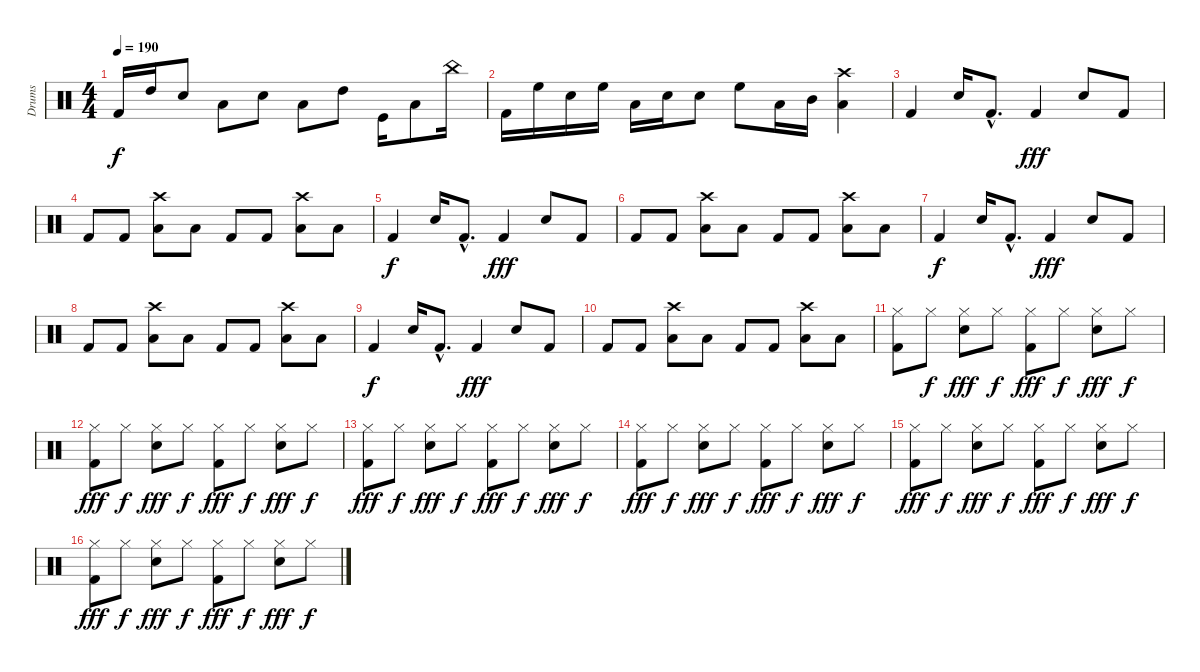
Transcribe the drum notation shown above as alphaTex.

\track ("Drums" "Drums") {instrument percussion}
\staff {score}
\articulation defaults
\ts (4 4)
\tempo 190
\clef neutral
\ks c "Kick (hit) 2".16{dy f} "High Tom (hit)".16 "Snare (hit) 2".8 "Low Tom (hit)".8 "Hand Clap (hit)".8 "Low Floor Tom (hit)".8 "High Tom (hit)".8 "Kick (hit)".16 "Low Tom (hit)".8 "China (hit)".16
|
"Kick (hit) 2".16 "High Floor Tom (hit)".16 "Snare (hit) 2".16 "High Floor Tom (hit)".16 "Low Floor Tom (hit)".16 "Snare (hit) 2".16 "Snare (hit) 2".8 "High Floor Tom (hit)".8 "Low Tom (hit)".16 "Mid Tom (hit)".16 ("Low Tom (hit)" "Crash high (hit)").4 |
"Kick (hit) 2".4 "Snare (hit) 2".16 "Kick (hit) 2"{hac}.8{d} "Kick (hit) 2".4{dy fff} "Snare (hit) 2".8 "Kick (hit) 2".8 |
"Kick (hit) 2".8 "Kick (hit) 2".8 ("Low Tom (hit)" "Crash high (hit)").8 "Low Tom (hit)".8 "Kick (hit) 2".8 "Kick (hit) 2".8 ("Low Tom (hit)" "Crash high (hit)").8 "Low Tom (hit)".8 |
"Kick (hit) 2".4{dy f} "Snare (hit) 2".16 "Kick (hit) 2"{hac}.8{d} "Kick (hit) 2".4{dy fff} "Snare (hit) 2".8 "Kick (hit) 2".8 |
"Kick (hit) 2".8 "Kick (hit) 2".8 ("Low Tom (hit)" "Crash high (hit)").8 "Low Tom (hit)".8 "Kick (hit) 2".8 "Kick (hit) 2".8 ("Low Tom (hit)" "Crash high (hit)").8 "Low Tom (hit)".8 |
"Kick (hit) 2".4{dy f} "Snare (hit) 2".16 "Kick (hit) 2"{hac}.8{d} "Kick (hit) 2".4{dy fff} "Snare (hit) 2".8 "Kick (hit) 2".8 |
"Kick (hit) 2".8 "Kick (hit) 2".8 ("Low Tom (hit)" "Crash high (hit)").8 "Low Tom (hit)".8 "Kick (hit) 2".8 "Kick (hit) 2".8 ("Low Tom (hit)" "Crash high (hit)").8 "Low Tom (hit)".8 |
"Kick (hit) 2".4{dy f} "Snare (hit) 2".16 "Kick (hit) 2"{hac}.8{d} "Kick (hit) 2".4{dy fff} "Snare (hit) 2".8 "Kick (hit) 2".8 |
"Kick (hit) 2".8 "Kick (hit) 2".8 ("Low Tom (hit)" "Crash high (hit)").8 "Low Tom (hit)".8 "Kick (hit) 2".8 "Kick (hit) 2".8 ("Low Tom (hit)" "Crash high (hit)").8 "Low Tom (hit)".8 |
("Kick (hit) 2" "Hi-Hat (closed)").8 "Hi-Hat (closed)".8{dy f} ("Snare (hit) 2" "Hi-Hat (closed)").8{dy fff} "Hi-Hat (closed)".8{dy f} ("Kick (hit) 2" "Hi-Hat (closed)").8{dy fff} "Hi-Hat (closed)".8{dy f} ("Snare (hit) 2" "Hi-Hat (closed)").8{dy fff} "Hi-Hat (closed)".8{dy f} |
("Kick (hit) 2" "Hi-Hat (closed)").8{dy fff} "Hi-Hat (closed)".8{dy f} ("Snare (hit) 2" "Hi-Hat (closed)").8{dy fff} "Hi-Hat (closed)".8{dy f} ("Kick (hit) 2" "Hi-Hat (closed)").8{dy fff} "Hi-Hat (closed)".8{dy f} ("Snare (hit) 2" "Hi-Hat (closed)").8{dy fff} "Hi-Hat (closed)".8{dy f} |
("Kick (hit) 2" "Hi-Hat (closed)").8{dy fff} "Hi-Hat (closed)".8{dy f} ("Snare (hit) 2" "Hi-Hat (closed)").8{dy fff} "Hi-Hat (closed)".8{dy f} ("Kick (hit) 2" "Hi-Hat (closed)").8{dy fff} "Hi-Hat (closed)".8{dy f} ("Snare (hit) 2" "Hi-Hat (closed)").8{dy fff} "Hi-Hat (closed)".8{dy f} |
("Kick (hit) 2" "Hi-Hat (closed)").8{dy fff} "Hi-Hat (closed)".8{dy f} ("Snare (hit) 2" "Hi-Hat (closed)").8{dy fff} "Hi-Hat (closed)".8{dy f} ("Kick (hit) 2" "Hi-Hat (closed)").8{dy fff} "Hi-Hat (closed)".8{dy f} ("Snare (hit) 2" "Hi-Hat (closed)").8{dy fff} "Hi-Hat (closed)".8{dy f} |
("Kick (hit) 2" "Hi-Hat (closed)").8{dy fff} "Hi-Hat (closed)".8{dy f} ("Snare (hit) 2" "Hi-Hat (closed)").8{dy fff} "Hi-Hat (closed)".8{dy f} ("Kick (hit) 2" "Hi-Hat (closed)").8{dy fff} "Hi-Hat (closed)".8{dy f} ("Snare (hit) 2" "Hi-Hat (closed)").8{dy fff} "Hi-Hat (closed)".8{dy f} |
("Kick (hit) 2" "Hi-Hat (closed)").8{dy fff} "Hi-Hat (closed)".8{dy f} ("Snare (hit) 2" "Hi-Hat (closed)").8{dy fff} "Hi-Hat (closed)".8{dy f} ("Kick (hit) 2" "Hi-Hat (closed)").8{dy fff} "Hi-Hat (closed)".8{dy f} ("Snare (hit) 2" "Hi-Hat (closed)").8{dy fff} "Hi-Hat (closed)".8{dy f}
